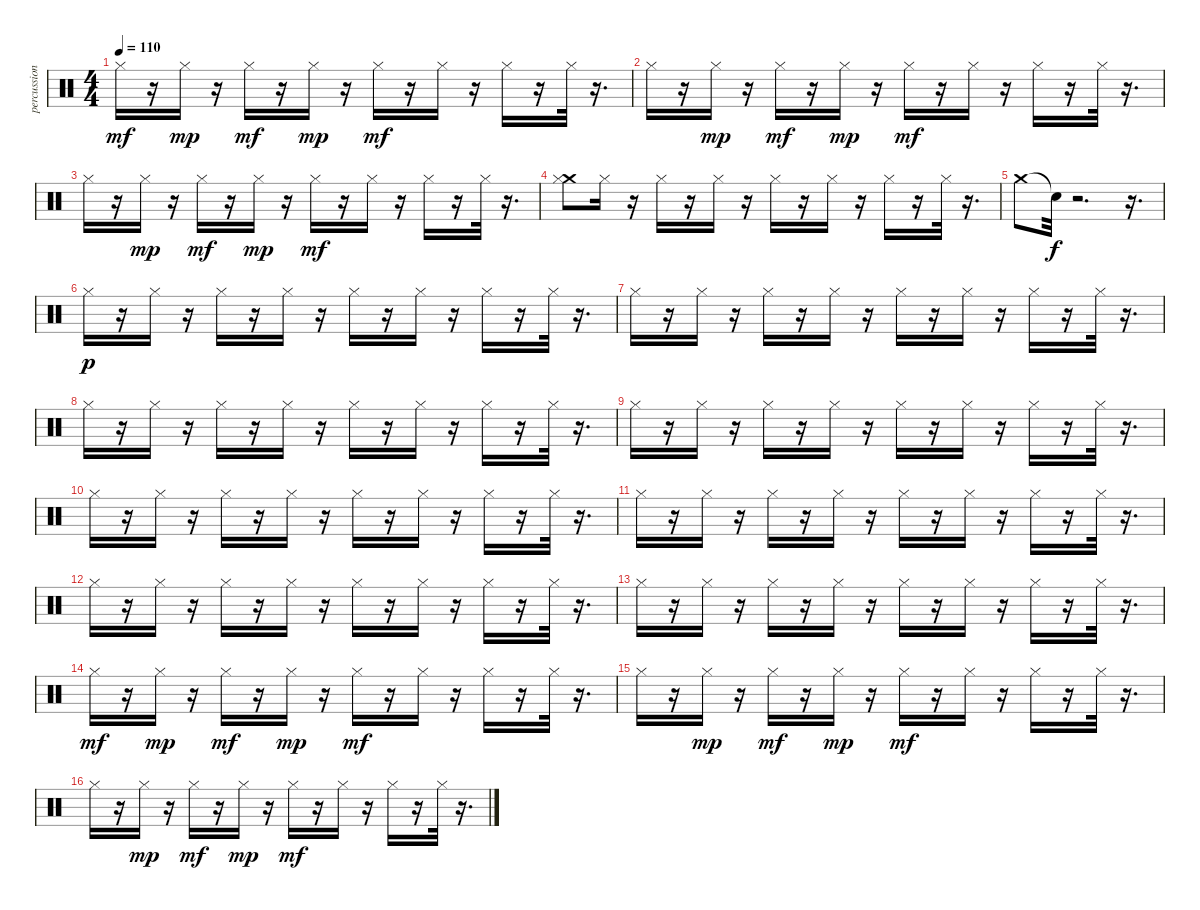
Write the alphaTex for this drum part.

\track ("percussions 2" "percussion") {instrument percussion}
\staff {score}
\articulation defaults
\ts (4 4)
\tempo 110
\clef neutral
\ks c "Hi-Hat (closed)".16{dy mf}
r.16 "Hi-Hat (closed)".16{dy mp} r.16 "Hi-Hat (closed)".16{dy mf} r.16 "Hi-Hat (closed)".16{dy mp} r.16 "Hi-Hat (closed)".16{dy mf} r.16 "Hi-Hat (closed)".16 r.16 "Hi-Hat (closed)".16 r.16 "Hi-Hat (closed)".32 r.16{d} |
"Hi-Hat (closed)".16 r.16 "Hi-Hat (closed)".16{dy mp} r.16 "Hi-Hat (closed)".16{dy mf} r.16 "Hi-Hat (closed)".16{dy mp} r.16 "Hi-Hat (closed)".16{dy mf} r.16 "Hi-Hat (closed)".16 r.16 "Hi-Hat (closed)".16 r.16 "Hi-Hat (closed)".32 r.16{d} |
"Hi-Hat (closed)".16 r.16 "Hi-Hat (closed)".16{dy mp} r.16 "Hi-Hat (closed)".16{dy mf} r.16 "Hi-Hat (closed)".16{dy mp} r.16 "Hi-Hat (closed)".16{dy mf} r.16 "Hi-Hat (closed)".16 r.16 "Hi-Hat (closed)".16 r.16 "Hi-Hat (closed)".32 r.16{d} |
("Crash medium (hit)" "Hi-Hat (closed)").8 "Hi-Hat (closed)".16 r.16 "Hi-Hat (closed)".16 r.16 "Hi-Hat (closed)".16 r.16 "Hi-Hat (closed)".16 r.16 "Hi-Hat (closed)".16 r.16 "Hi-Hat (closed)".16 r.16 "Hi-Hat (closed)".32 r.16{d} |
"Crash medium (hit)".8 "Snare (hit)"{t}.32{dy f} r.2{d} r.16{d} |
"Hi-Hat (closed)".16{dy p} r.16 "Hi-Hat (closed)".16 r.16 "Hi-Hat (closed)".16 r.16 "Hi-Hat (closed)".16 r.16 "Hi-Hat (closed)".16 r.16 "Hi-Hat (closed)".16 r.16 "Hi-Hat (closed)".16 r.16 "Hi-Hat (closed)".32 r.16{d} |
"Hi-Hat (closed)".16 r.16 "Hi-Hat (closed)".16 r.16 "Hi-Hat (closed)".16 r.16 "Hi-Hat (closed)".16 r.16 "Hi-Hat (closed)".16 r.16 "Hi-Hat (closed)".16 r.16 "Hi-Hat (closed)".16 r.16 "Hi-Hat (closed)".32 r.16{d} |
"Hi-Hat (closed)".16 r.16 "Hi-Hat (closed)".16 r.16 "Hi-Hat (closed)".16 r.16 "Hi-Hat (closed)".16 r.16 "Hi-Hat (closed)".16 r.16 "Hi-Hat (closed)".16 r.16 "Hi-Hat (closed)".16 r.16 "Hi-Hat (closed)".32 r.16{d} |
"Hi-Hat (closed)".16 r.16 "Hi-Hat (closed)".16 r.16 "Hi-Hat (closed)".16 r.16 "Hi-Hat (closed)".16 r.16 "Hi-Hat (closed)".16 r.16 "Hi-Hat (closed)".16 r.16 "Hi-Hat (closed)".16 r.16 "Hi-Hat (closed)".32 r.16{d} |
"Hi-Hat (closed)".16 r.16 "Hi-Hat (closed)".16 r.16 "Hi-Hat (closed)".16 r.16 "Hi-Hat (closed)".16 r.16 "Hi-Hat (closed)".16 r.16 "Hi-Hat (closed)".16 r.16 "Hi-Hat (closed)".16 r.16 "Hi-Hat (closed)".32 r.16{d} |
"Hi-Hat (closed)".16 r.16 "Hi-Hat (closed)".16 r.16 "Hi-Hat (closed)".16 r.16 "Hi-Hat (closed)".16 r.16 "Hi-Hat (closed)".16 r.16 "Hi-Hat (closed)".16 r.16 "Hi-Hat (closed)".16 r.16 "Hi-Hat (closed)".32 r.16{d} |
"Hi-Hat (closed)".16 r.16 "Hi-Hat (closed)".16 r.16 "Hi-Hat (closed)".16 r.16 "Hi-Hat (closed)".16 r.16 "Hi-Hat (closed)".16 r.16 "Hi-Hat (closed)".16 r.16 "Hi-Hat (closed)".16 r.16 "Hi-Hat (closed)".32 r.16{d} |
"Hi-Hat (closed)".16 r.16 "Hi-Hat (closed)".16 r.16 "Hi-Hat (closed)".16 r.16 "Hi-Hat (closed)".16 r.16 "Hi-Hat (closed)".16 r.16 "Hi-Hat (closed)".16 r.16 "Hi-Hat (closed)".16 r.16 "Hi-Hat (closed)".32 r.16{d} |
"Hi-Hat (closed)".16{dy mf} r.16 "Hi-Hat (closed)".16{dy mp} r.16 "Hi-Hat (closed)".16{dy mf} r.16 "Hi-Hat (closed)".16{dy mp} r.16 "Hi-Hat (closed)".16{dy mf} r.16 "Hi-Hat (closed)".16 r.16 "Hi-Hat (closed)".16 r.16 "Hi-Hat (closed)".32 r.16{d} |
"Hi-Hat (closed)".16 r.16 "Hi-Hat (closed)".16{dy mp} r.16 "Hi-Hat (closed)".16{dy mf} r.16 "Hi-Hat (closed)".16{dy mp} r.16 "Hi-Hat (closed)".16{dy mf} r.16 "Hi-Hat (closed)".16 r.16 "Hi-Hat (closed)".16 r.16 "Hi-Hat (closed)".32 r.16{d} |
"Hi-Hat (closed)".16 r.16 "Hi-Hat (closed)".16{dy mp} r.16 "Hi-Hat (closed)".16{dy mf} r.16 "Hi-Hat (closed)".16{dy mp} r.16 "Hi-Hat (closed)".16{dy mf} r.16 "Hi-Hat (closed)".16 r.16 "Hi-Hat (closed)".16 r.16 "Hi-Hat (closed)".32 r.16{d}
